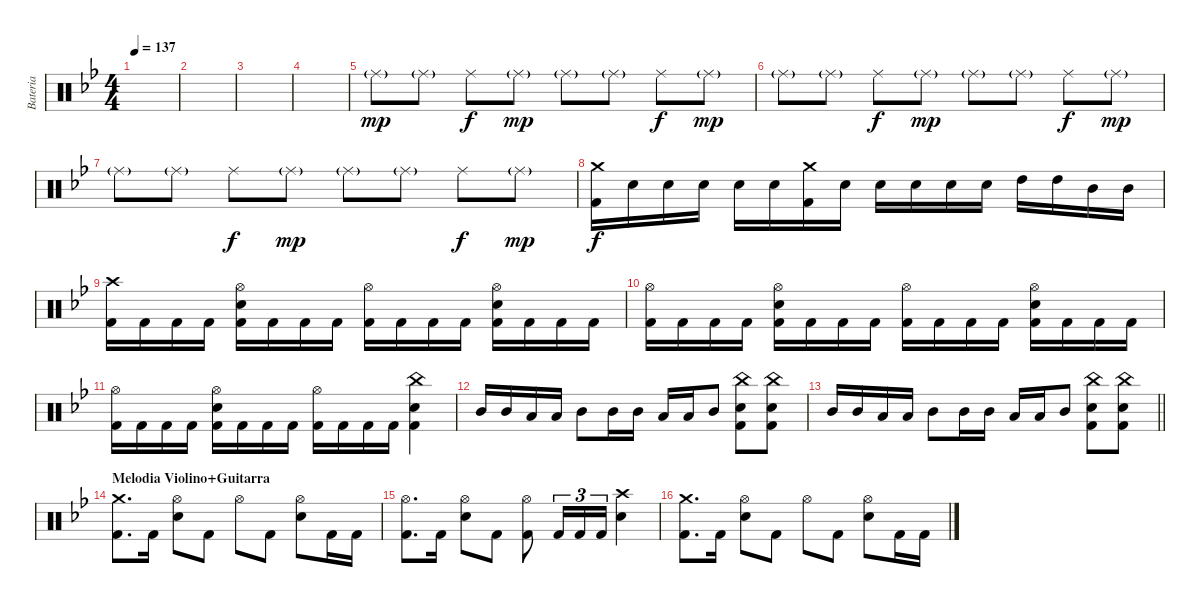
\track ("Bateria" "Bateria") {instrument percussion}
\staff {score}
\articulation defaults
\ts (4 4)
\tempo 137
\clef neutral
\ks gminor
|
|
|
|
"Ride (middle)"{g}.8{dy mp} "Ride (middle)"{g}.8 "Ride (middle)".8{dy f} "Ride (middle)"{g}.8{dy mp} "Ride (middle)"{g}.8 "Ride (middle)"{g}.8 "Ride (middle)".8{dy f} "Ride (middle)"{g}.8{dy mp} |
"Ride (middle)"{g}.8 "Ride (middle)"{g}.8 "Ride (middle)".8{dy f} "Ride (middle)"{g}.8{dy mp} "Ride (middle)"{g}.8 "Ride (middle)"{g}.8 "Ride (middle)".8{dy f} "Ride (middle)"{g}.8{dy mp} |
"Ride (middle)"{g}.8 "Ride (middle)"{g}.8 "Ride (middle)".8{dy f} "Ride (middle)"{g}.8{dy mp} "Ride (middle)"{g}.8 "Ride (middle)"{g}.8 "Ride (middle)".8{dy f} "Ride (middle)"{g}.8{dy mp} |
("Crash medium (hit)" "Kick (hit) 2").16{dy f} "Electric Snare (hit)".16 "Electric Snare (hit)".16 "Electric Snare (hit)".16 "Electric Snare (hit)".16 "Electric Snare (hit)".16 ("Crash medium (hit)" "Kick (hit) 2").16 "Electric Snare (hit)".16 "Electric Snare (hit)".16 "Electric Snare (hit)".16 "Electric Snare (hit)".16 "Electric Snare (hit)".16 "High Tom (hit)".16 "High Tom (hit)".16 "Mid Tom (hit)".16 "Mid Tom (hit)".16 |
("Crash high (hit)" "Kick (hit) 2").16 "Kick (hit) 2".16 "Kick (hit) 2".16 "Kick (hit) 2".16 ("Hi-Hat (open)" "Electric Snare (hit)" "Kick (hit) 2").16 "Kick (hit) 2".16 "Kick (hit) 2".16 "Kick (hit) 2".16 ("Hi-Hat (open)" "Kick (hit) 2").16 "Kick (hit) 2".16 "Kick (hit) 2".16 "Kick (hit) 2".16 ("Hi-Hat (open)" "Electric Snare (hit)" "Kick (hit) 2").16 "Kick (hit) 2".16 "Kick (hit) 2".16 "Kick (hit) 2".16 |
("Hi-Hat (open)" "Kick (hit) 2").16 "Kick (hit) 2".16 "Kick (hit) 2".16 "Kick (hit) 2".16 ("Hi-Hat (open)" "Electric Snare (hit)" "Kick (hit) 2").16 "Kick (hit) 2".16 "Kick (hit) 2".16 "Kick (hit) 2".16 ("Hi-Hat (open)" "Kick (hit) 2").16 "Kick (hit) 2".16 "Kick (hit) 2".16 "Kick (hit) 2".16 ("Hi-Hat (open)" "Electric Snare (hit)" "Kick (hit) 2").16 "Kick (hit) 2".16 "Kick (hit) 2".16 "Kick (hit) 2".16 |
("Hi-Hat (open)" "Kick (hit) 2").16 "Kick (hit) 2".16 "Kick (hit) 2".16 "Kick (hit) 2".16 ("Hi-Hat (open)" "Electric Snare (hit)" "Kick (hit) 2").16 "Kick (hit) 2".16 "Kick (hit) 2".16 "Kick (hit) 2".16 ("Hi-Hat (open)" "Kick (hit) 2").16 "Kick (hit) 2".16 "Kick (hit) 2".16 "Kick (hit) 2".16 ("China (hit)" "Electric Snare (hit)" "Kick (hit) 2").4 |
"Mid Tom (hit)".16 "Mid Tom (hit)".16 "Low Tom (hit)".16 "Low Tom (hit)".16 "Mid Tom (hit)".8 "Mid Tom (hit)".16 "Mid Tom (hit)".16 "Low Tom (hit)".16 "Low Tom (hit)".16 "Mid Tom (hit)".8 ("China (hit)" "Electric Snare (hit)" "Kick (hit) 2").8 ("China (hit)" "Electric Snare (hit)" "Kick (hit) 2").8 |
\barLineRight lightlight "Mid Tom (hit)".16 "Mid Tom (hit)".16 "Low Tom (hit)".16 "Low Tom (hit)".16 "Mid Tom (hit)".8 "Mid Tom (hit)".16 "Mid Tom (hit)".16 "Low Tom (hit)".16 "Low Tom (hit)".16 "Mid Tom (hit)".8
("China (hit)" "Electric Snare (hit)" "Kick (hit) 2").8 ("China (hit)" "Electric Snare (hit)" "Kick (hit) 2").8 |
\section ("" "Melodia Violino+Guitarra")
("Crash medium (hit)" "Kick (hit) 2").8{d} "Kick (hit) 2".16 ("Hi-Hat (open)" "Electric Snare (hit)").8 "Kick (hit) 2".8 "Hi-Hat (open)".8 "Kick (hit) 2".8 ("Hi-Hat (open)" "Electric Snare (hit)").8 "Kick (hit) 2".16 "Kick (hit) 2".16 |
("Hi-Hat (open)" "Kick (hit) 2").8{d} "Kick (hit) 2".16 ("Hi-Hat (open)" "Electric Snare (hit)").8 "Kick (hit) 2".8 ("Hi-Hat (open)" "Kick (hit) 2").8 "Kick (hit) 2".16{tu (3 2)} "Kick (hit) 2".16{tu (3 2)} "Kick (hit) 2".16{tu (3 2)} ("Crash high (hit)" "Electric Snare (hit)").4 |
("Crash medium (hit)" "Kick (hit) 2").8{d} "Kick (hit) 2".16 ("Hi-Hat (open)" "Electric Snare (hit)").8 "Kick (hit) 2".8 "Hi-Hat (open)".8 "Kick (hit) 2".8 ("Hi-Hat (open)" "Electric Snare (hit)").8 "Kick (hit) 2".16 "Kick (hit) 2".16
